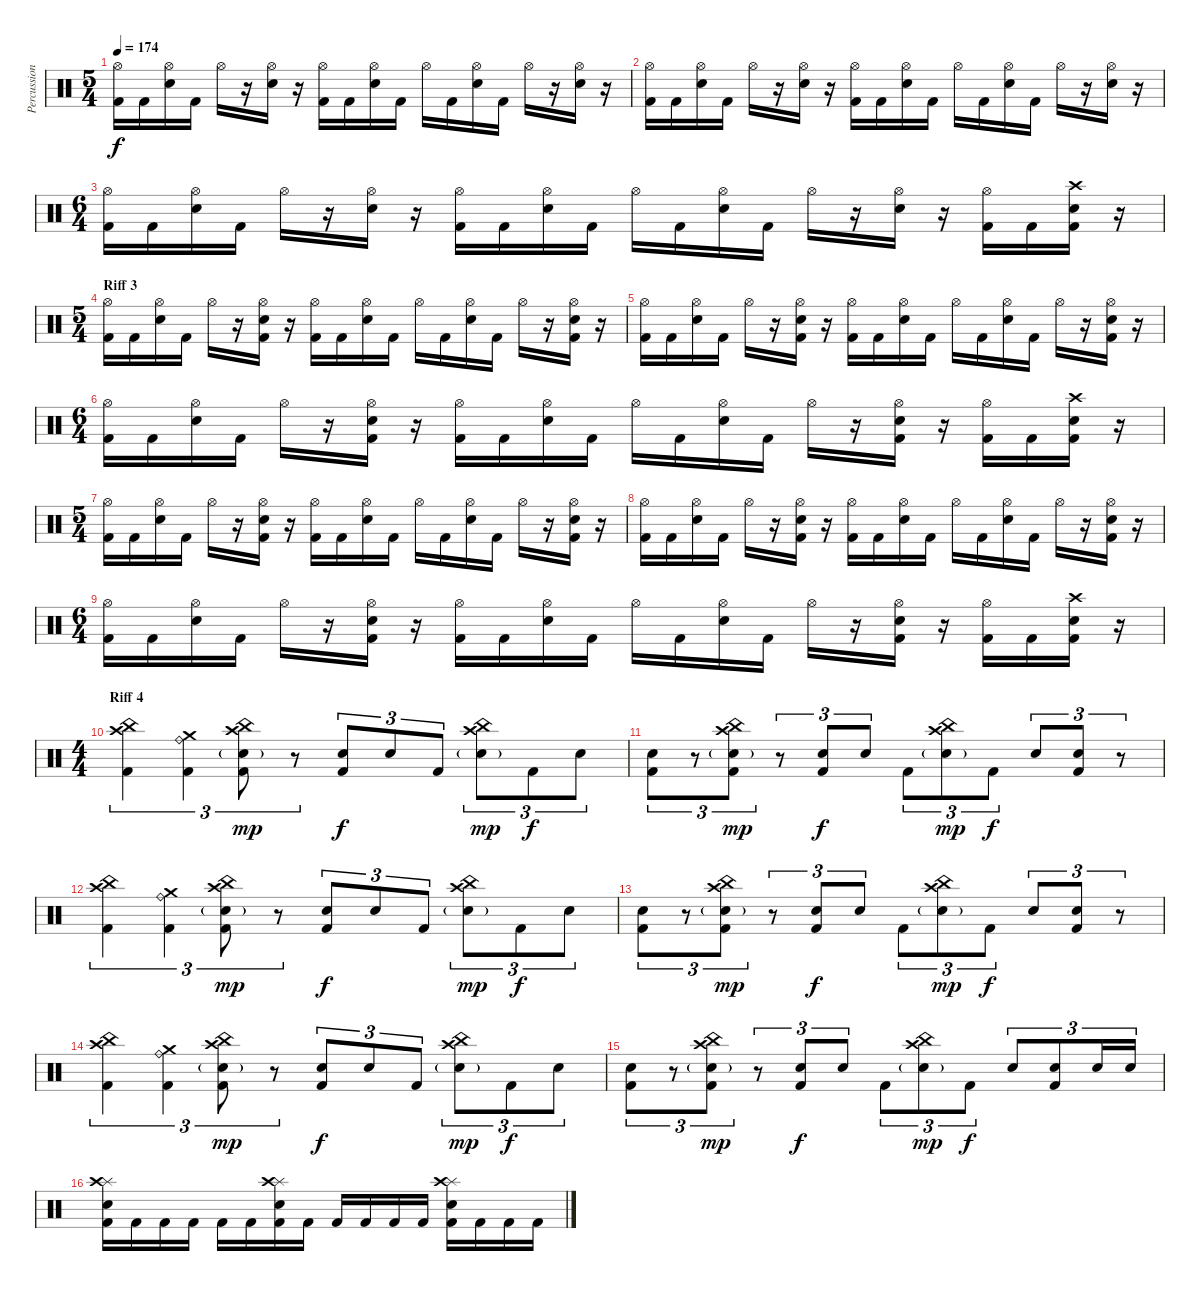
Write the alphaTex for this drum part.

\track ("Percussion" "Percussion") {instrument percussion}
\staff {score}
\articulation defaults
\ts (5 4)
\tempo 174
\clef neutral
\ks c
("Hi-Hat (open)" "Kick (hit) 2").16{dy f} "Kick (hit) 2".16 ("Hi-Hat (open)" "Electric Snare (hit)").16 "Kick (hit) 2".16 "Hi-Hat (open)".16 r.16 ("Hi-Hat (open)" "Electric Snare (hit)").16 r.16 ("Hi-Hat (open)" "Kick (hit) 2").16 "Kick (hit) 2".16 ("Hi-Hat (open)" "Electric Snare (hit)").16 "Kick (hit) 2".16 "Hi-Hat (open)".16 "Kick (hit) 2".16 ("Hi-Hat (open)" "Electric Snare (hit)").16 "Kick (hit) 2".16 "Hi-Hat (open)".16 r.16 ("Hi-Hat (open)" "Electric Snare (hit)").16 r.16 |
("Hi-Hat (open)" "Kick (hit) 2").16 "Kick (hit) 2".16 ("Hi-Hat (open)" "Electric Snare (hit)").16 "Kick (hit) 2".16 "Hi-Hat (open)".16 r.16 ("Hi-Hat (open)" "Electric Snare (hit)").16 r.16 ("Hi-Hat (open)" "Kick (hit) 2").16 "Kick (hit) 2".16 ("Hi-Hat (open)" "Electric Snare (hit)").16 "Kick (hit) 2".16 "Hi-Hat (open)".16 "Kick (hit) 2".16 ("Hi-Hat (open)" "Electric Snare (hit)").16 "Kick (hit) 2".16 "Hi-Hat (open)".16 r.16 ("Hi-Hat (open)" "Electric Snare (hit)").16 r.16 |
\ts (6 4)
("Hi-Hat (open)" "Kick (hit) 2").16 "Kick (hit) 2".16 ("Hi-Hat (open)" "Electric Snare (hit)").16 "Kick (hit) 2".16 "Hi-Hat (open)".16 r.16 ("Hi-Hat (open)" "Electric Snare (hit)").16 r.16 ("Hi-Hat (open)" "Kick (hit) 2").16 "Kick (hit) 2".16 ("Hi-Hat (open)" "Electric Snare (hit)").16 "Kick (hit) 2".16 "Hi-Hat (open)".16 "Kick (hit) 2".16 ("Hi-Hat (open)" "Electric Snare (hit)").16 "Kick (hit) 2".16 "Hi-Hat (open)".16 r.16 ("Hi-Hat (open)" "Electric Snare (hit)").16 r.16 ("Hi-Hat (open)" "Kick (hit) 2").16 "Kick (hit) 2".16 ("Crash high (hit)" "Electric Snare (hit)" "Kick (hit) 2").16 r.16 |
\ts (5 4)
\section ("" "Riff 3")
("Hi-Hat (open)" "Kick (hit) 2").16 "Kick (hit) 2".16 ("Hi-Hat (open)" "Electric Snare (hit)").16 "Kick (hit) 2".16 "Hi-Hat (open)".16 r.16 ("Hi-Hat (open)" "Electric Snare (hit)" "Kick (hit) 2").16 r.16 ("Hi-Hat (open)" "Kick (hit) 2").16 "Kick (hit) 2".16 ("Hi-Hat (open)" "Electric Snare (hit)").16 "Kick (hit) 2".16 "Hi-Hat (open)".16 "Kick (hit) 2".16 ("Hi-Hat (open)" "Electric Snare (hit)").16 "Kick (hit) 2".16 "Hi-Hat (open)".16 r.16 ("Hi-Hat (open)" "Electric Snare (hit)" "Kick (hit) 2").16 r.16 |
("Hi-Hat (open)" "Kick (hit) 2").16 "Kick (hit) 2".16 ("Hi-Hat (open)" "Electric Snare (hit)").16 "Kick (hit) 2".16 "Hi-Hat (open)".16 r.16 ("Hi-Hat (open)" "Electric Snare (hit)" "Kick (hit) 2").16 r.16 ("Hi-Hat (open)" "Kick (hit) 2").16 "Kick (hit) 2".16 ("Hi-Hat (open)" "Electric Snare (hit)").16 "Kick (hit) 2".16 "Hi-Hat (open)".16 "Kick (hit) 2".16 ("Hi-Hat (open)" "Electric Snare (hit)").16 "Kick (hit) 2".16 "Hi-Hat (open)".16 r.16 ("Hi-Hat (open)" "Electric Snare (hit)" "Kick (hit) 2").16 r.16 |
\ts (6 4)
("Hi-Hat (open)" "Kick (hit) 2").16 "Kick (hit) 2".16 ("Hi-Hat (open)" "Electric Snare (hit)").16 "Kick (hit) 2".16 "Hi-Hat (open)".16 r.16 ("Hi-Hat (open)" "Electric Snare (hit)" "Kick (hit) 2").16 r.16 ("Hi-Hat (open)" "Kick (hit) 2").16 "Kick (hit) 2".16 ("Hi-Hat (open)" "Electric Snare (hit)").16 "Kick (hit) 2".16 "Hi-Hat (open)".16 "Kick (hit) 2".16 ("Hi-Hat (open)" "Electric Snare (hit)").16 "Kick (hit) 2".16 "Hi-Hat (open)".16 r.16 ("Hi-Hat (open)" "Electric Snare (hit)" "Kick (hit) 2").16 r.16 ("Hi-Hat (open)" "Kick (hit) 2").16 "Kick (hit) 2".16 ("Crash high (hit)" "Electric Snare (hit)" "Kick (hit) 2").16 r.16 |
\ts (5 4)
("Hi-Hat (open)" "Kick (hit) 2").16 "Kick (hit) 2".16 ("Hi-Hat (open)" "Electric Snare (hit)").16 "Kick (hit) 2".16 "Hi-Hat (open)".16 r.16 ("Hi-Hat (open)" "Electric Snare (hit)" "Kick (hit) 2").16 r.16 ("Hi-Hat (open)" "Kick (hit) 2").16 "Kick (hit) 2".16 ("Hi-Hat (open)" "Electric Snare (hit)").16 "Kick (hit) 2".16 "Hi-Hat (open)".16 "Kick (hit) 2".16 ("Hi-Hat (open)" "Electric Snare (hit)").16 "Kick (hit) 2".16 "Hi-Hat (open)".16 r.16 ("Hi-Hat (open)" "Electric Snare (hit)" "Kick (hit) 2").16 r.16 |
("Hi-Hat (open)" "Kick (hit) 2").16 "Kick (hit) 2".16 ("Hi-Hat (open)" "Electric Snare (hit)").16 "Kick (hit) 2".16 "Hi-Hat (open)".16 r.16 ("Hi-Hat (open)" "Electric Snare (hit)" "Kick (hit) 2").16 r.16 ("Hi-Hat (open)" "Kick (hit) 2").16 "Kick (hit) 2".16 ("Hi-Hat (open)" "Electric Snare (hit)").16 "Kick (hit) 2".16 "Hi-Hat (open)".16 "Kick (hit) 2".16 ("Hi-Hat (open)" "Electric Snare (hit)").16 "Kick (hit) 2".16 "Hi-Hat (open)".16 r.16 ("Hi-Hat (open)" "Electric Snare (hit)" "Kick (hit) 2").16 r.16 |
\ts (6 4)
("Hi-Hat (open)" "Kick (hit) 2").16 "Kick (hit) 2".16 ("Hi-Hat (open)" "Electric Snare (hit)").16 "Kick (hit) 2".16 "Hi-Hat (open)".16 r.16 ("Hi-Hat (open)" "Electric Snare (hit)" "Kick (hit) 2").16 r.16 ("Hi-Hat (open)" "Kick (hit) 2").16 "Kick (hit) 2".16 ("Hi-Hat (open)" "Electric Snare (hit)").16 "Kick (hit) 2".16 "Hi-Hat (open)".16 "Kick (hit) 2".16 ("Hi-Hat (open)" "Electric Snare (hit)").16 "Kick (hit) 2".16 "Hi-Hat (open)".16 r.16 ("Hi-Hat (open)" "Electric Snare (hit)" "Kick (hit) 2").16 r.16 ("Hi-Hat (open)" "Kick (hit) 2").16 "Kick (hit) 2".16 ("Crash high (hit)" "Electric Snare (hit)" "Kick (hit) 2").16 r.16 |
\ts (4 4)
\section ("" "Riff 4")
("China (hit)" "Crash high (hit)" "Kick (hit) 2").4{tu (3 2)} ("Ride (bell)" "Crash medium (hit)" "Kick (hit) 2").4{tu (3 2)} ("China (hit)" "Crash high (hit)" "Electric Snare (hit)"{g} "Kick (hit) 2").8{tu (3 2) dy mp} r.8{tu (3 2)} ("Electric Snare (hit)" "Kick (hit) 2").8{tu (3 2) dy f} "Electric Snare (hit)".8{tu (3 2)} "Kick (hit) 2".8{tu (3 2)} ("China (hit)" "Crash high (hit)" "Electric Snare (hit)"{g}).8{tu (3 2) dy mp} "Kick (hit) 2".8{tu (3 2) dy f} "Electric Snare (hit)".8{tu (3 2)} |
("Electric Snare (hit)" "Kick (hit) 2").8{tu (3 2)} r.8{tu (3 2)} ("China (hit)" "Crash high (hit)" "Electric Snare (hit)"{g} "Kick (hit) 2").8{tu (3 2) dy mp} r.8{tu (3 2)} ("Electric Snare (hit)" "Kick (hit) 2").8{tu (3 2) dy f} "Electric Snare (hit)".8{tu (3 2)} "Kick (hit) 2".8{tu (3 2)} ("China (hit)" "Crash high (hit)" "Electric Snare (hit)"{g}).8{tu (3 2) dy mp} "Kick (hit) 2".8{tu (3 2) dy f} "Electric Snare (hit)".8{tu (3 2)} ("Electric Snare (hit)" "Kick (hit) 2").8{tu (3 2)} r.8{tu (3 2)} |
("China (hit)" "Crash high (hit)" "Kick (hit) 2").4{tu (3 2)} ("Ride (bell)" "Crash medium (hit)" "Kick (hit) 2").4{tu (3 2)} ("China (hit)" "Crash high (hit)" "Electric Snare (hit)"{g} "Kick (hit) 2").8{tu (3 2) dy mp} r.8{tu (3 2)} ("Electric Snare (hit)" "Kick (hit) 2").8{tu (3 2) dy f} "Electric Snare (hit)".8{tu (3 2)} "Kick (hit) 2".8{tu (3 2)} ("China (hit)" "Crash high (hit)" "Electric Snare (hit)"{g}).8{tu (3 2) dy mp} "Kick (hit) 2".8{tu (3 2) dy f} "Electric Snare (hit)".8{tu (3 2)} |
("Electric Snare (hit)" "Kick (hit) 2").8{tu (3 2)} r.8{tu (3 2)} ("China (hit)" "Crash high (hit)" "Electric Snare (hit)"{g} "Kick (hit) 2").8{tu (3 2) dy mp} r.8{tu (3 2)} ("Electric Snare (hit)" "Kick (hit) 2").8{tu (3 2) dy f} "Electric Snare (hit)".8{tu (3 2)} "Kick (hit) 2".8{tu (3 2)} ("China (hit)" "Crash high (hit)" "Electric Snare (hit)"{g}).8{tu (3 2) dy mp} "Kick (hit) 2".8{tu (3 2) dy f} "Electric Snare (hit)".8{tu (3 2)} ("Electric Snare (hit)" "Kick (hit) 2").8{tu (3 2)} r.8{tu (3 2)} |
("China (hit)" "Crash high (hit)" "Kick (hit) 2").4{tu (3 2)} ("Ride (bell)" "Crash medium (hit)" "Kick (hit) 2").4{tu (3 2)} ("China (hit)" "Crash high (hit)" "Electric Snare (hit)"{g} "Kick (hit) 2").8{tu (3 2) dy mp} r.8{tu (3 2)} ("Electric Snare (hit)" "Kick (hit) 2").8{tu (3 2) dy f} "Electric Snare (hit)".8{tu (3 2)} "Kick (hit) 2".8{tu (3 2)} ("China (hit)" "Crash high (hit)" "Electric Snare (hit)"{g}).8{tu (3 2) dy mp} "Kick (hit) 2".8{tu (3 2) dy f} "Electric Snare (hit)".8{tu (3 2)} |
("Electric Snare (hit)" "Kick (hit) 2").8{tu (3 2)} r.8{tu (3 2)} ("China (hit)" "Crash high (hit)" "Electric Snare (hit)"{g} "Kick (hit) 2").8{tu (3 2) dy mp} r.8{tu (3 2)} ("Electric Snare (hit)" "Kick (hit) 2").8{tu (3 2) dy f} "Electric Snare (hit)".8{tu (3 2)} "Kick (hit) 2".8{tu (3 2)} ("China (hit)" "Crash high (hit)" "Electric Snare (hit)"{g}).8{tu (3 2) dy mp} "Kick (hit) 2".8{tu (3 2) dy f} "Electric Snare (hit)".8{tu (3 2)} ("Electric Snare (hit)" "Kick (hit) 2").8{tu (3 2)} "Electric Snare (hit)".16{tu (3 2)} "Electric Snare (hit)".16{tu (3 2)} |
("Splash (hit)" "Crash high (hit)" "Electric Snare (hit)" "Kick (hit) 2").16 "Kick (hit) 2".16 "Kick (hit) 2".16 "Kick (hit) 2".16 "Kick (hit) 2".16 "Kick (hit) 2".16 ("Splash (hit)" "Crash high (hit)" "Electric Snare (hit)" "Kick (hit) 2").16 "Kick (hit) 2".16 "Kick (hit) 2".16 "Kick (hit) 2".16 "Kick (hit) 2".16 "Kick (hit) 2".16 ("Splash (hit)" "Crash high (hit)" "Electric Snare (hit)" "Kick (hit) 2").16 "Kick (hit) 2".16 "Kick (hit) 2".16 "Kick (hit) 2".16
